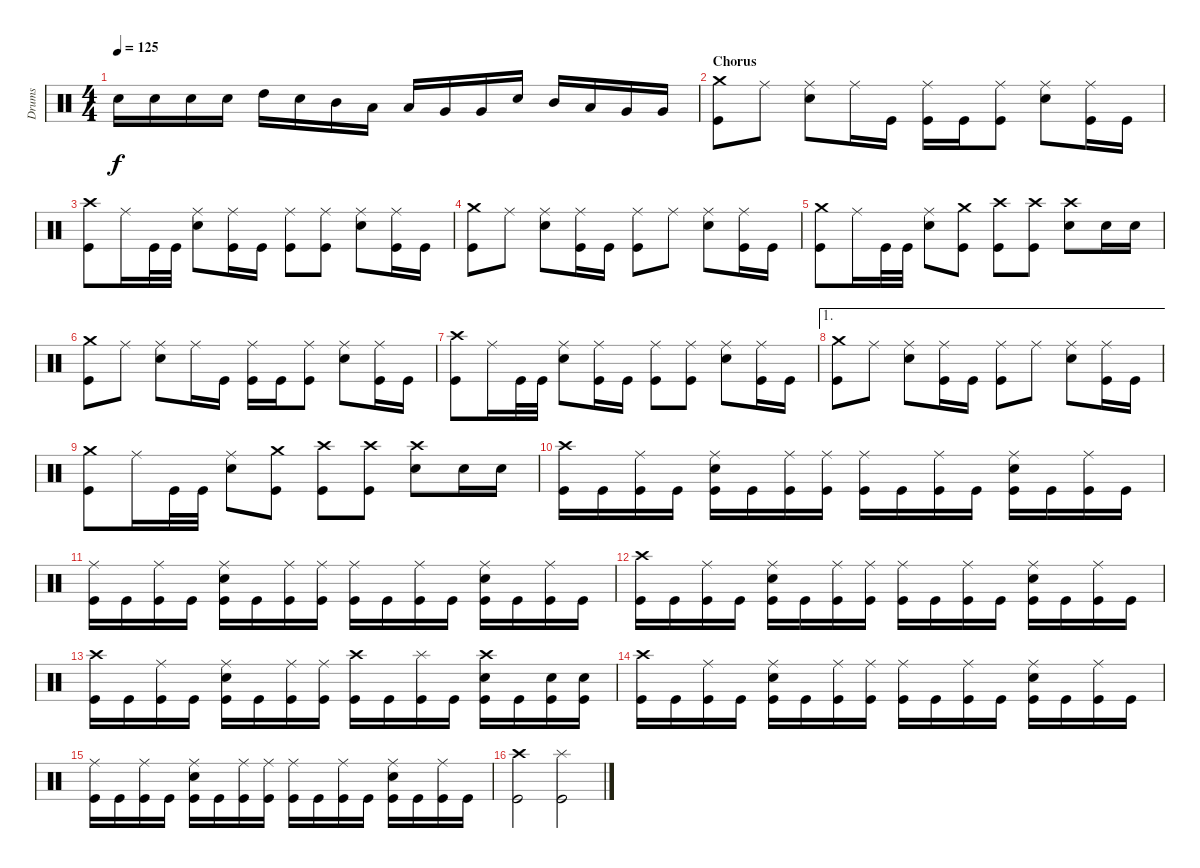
\track ("Drums" "Drums") {instrument percussion}
\staff {score}
\articulation defaults
\ts (4 4)
\tempo 125
\clef neutral
\ks c "Electric Snare (hit)".16{dy f} "Electric Snare (hit)".16 "Electric Snare (hit)".16 "Electric Snare (hit)".16 "High Tom (hit)".16 "Electric Snare (hit)".16 "Mid Tom (hit)".16 "Low Tom (hit)".16 "Low Tom (hit)".16 "Very Low Tom (hit)".16 "Very Low Tom (hit)".16 "Electric Snare (hit)".16 "Mid Tom (hit)".16 "Low Tom (hit)".16 "Very Low Tom (hit)".16 "Very Low Tom (hit)".16
|
\section ("" "Chorus")
("Crash medium (hit)" "Kick (hit)").8 "Ride (middle)".8 ("Ride (middle)" "Electric Snare (hit)").8 "Ride (middle)".16 "Kick (hit)".16 ("Ride (middle)" "Kick (hit)").16 "Kick (hit)".16 ("Ride (middle)" "Kick (hit)").8 ("Ride (middle)" "Electric Snare (hit)").8 ("Ride (middle)" "Kick (hit)").16 "Kick (hit)".16 |
("Crash high (hit)" "Kick (hit)").8 "Ride (middle)".16 "Kick (hit)".32 "Kick (hit)".32 ("Ride (middle)" "Electric Snare (hit)").8 ("Ride (middle)" "Kick (hit)").16 "Kick (hit)".16 ("Ride (middle)" "Kick (hit)").8 ("Ride (middle)" "Kick (hit)").8 ("Ride (middle)" "Electric Snare (hit)").8 ("Ride (middle)" "Kick (hit)").16 "Kick (hit)".16 |
("Crash medium (hit)" "Kick (hit)").8 "Ride (middle)".8 ("Ride (middle)" "Electric Snare (hit)").8 ("Ride (middle)" "Kick (hit)").16 "Kick (hit)".16 ("Ride (middle)" "Kick (hit)").8 "Ride (middle)".8 ("Ride (middle)" "Electric Snare (hit)").8 ("Ride (middle)" "Kick (hit)").16 "Kick (hit)".16 |
("Crash medium (hit)" "Kick (hit)").8 "Ride (middle)".16 "Kick (hit)".32 "Kick (hit)".32 ("Ride (middle)" "Electric Snare (hit)").8 ("Crash medium (hit)" "Kick (hit)").8 ("Crash high (hit)" "Kick (hit)").8 ("Crash high (hit)" "Kick (hit)").8 ("Crash high (hit)" "Electric Snare (hit)").8 "Electric Snare (hit)".16 "Electric Snare (hit)".16 |
("Crash medium (hit)" "Kick (hit)").8 "Ride (middle)".8 ("Ride (middle)" "Electric Snare (hit)").8 "Ride (middle)".16 "Kick (hit)".16 ("Ride (middle)" "Kick (hit)").16 "Kick (hit)".16 ("Ride (middle)" "Kick (hit)").8 ("Ride (middle)" "Electric Snare (hit)").8 ("Ride (middle)" "Kick (hit)").16 "Kick (hit)".16 |
("Crash high (hit)" "Kick (hit)").8 "Ride (middle)".16 "Kick (hit)".32 "Kick (hit)".32 ("Ride (middle)" "Electric Snare (hit)").8 ("Ride (middle)" "Kick (hit)").16 "Kick (hit)".16 ("Ride (middle)" "Kick (hit)").8 ("Ride (middle)" "Kick (hit)").8 ("Ride (middle)" "Electric Snare (hit)").8 ("Ride (middle)" "Kick (hit)").16 "Kick (hit)".16 |
\ae 1
("Crash medium (hit)" "Kick (hit)").8 "Ride (middle)".8 ("Ride (middle)" "Electric Snare (hit)").8 ("Ride (middle)" "Kick (hit)").16 "Kick (hit)".16 ("Ride (middle)" "Kick (hit)").8 "Ride (middle)".8 ("Ride (middle)" "Electric Snare (hit)").8 ("Ride (middle)" "Kick (hit)").16 "Kick (hit)".16 |
("Crash medium (hit)" "Kick (hit)").8 "Ride (middle)".16 "Kick (hit)".32 "Kick (hit)".32 ("Ride (middle)" "Electric Snare (hit)").8 ("Crash medium (hit)" "Kick (hit)").8 ("Crash high (hit)" "Kick (hit)").8 ("Crash high (hit)" "Kick (hit)").8 ("Crash high (hit)" "Electric Snare (hit)").8 "Electric Snare (hit)".16 "Electric Snare (hit)".16 |
("Crash high (hit)" "Kick (hit)").16 "Kick (hit)".16 ("Ride (middle)" "Kick (hit)").16 "Kick (hit)".16 ("Ride (middle)" "Electric Snare (hit)" "Kick (hit)").16 "Kick (hit)".16 ("Ride (middle)" "Kick (hit)").16 ("Ride (middle)" "Kick (hit)").16 ("Ride (middle)" "Kick (hit)").16 "Kick (hit)".16 ("Ride (middle)" "Kick (hit)").16 "Kick (hit)".16 ("Ride (middle)" "Electric Snare (hit)" "Kick (hit)").16 "Kick (hit)".16 ("Ride (middle)" "Kick (hit)").16 "Kick (hit)".16 |
("Ride (middle)" "Kick (hit)").16 "Kick (hit)".16 ("Ride (middle)" "Kick (hit)").16 "Kick (hit)".16 ("Ride (middle)" "Electric Snare (hit)" "Kick (hit)").16 "Kick (hit)".16 ("Ride (middle)" "Kick (hit)").16 ("Ride (middle)" "Kick (hit)").16 ("Ride (middle)" "Kick (hit)").16 "Kick (hit)".16 ("Ride (middle)" "Kick (hit)").16 "Kick (hit)".16 ("Ride (middle)" "Electric Snare (hit)" "Kick (hit)").16 "Kick (hit)".16 ("Ride (middle)" "Kick (hit)").16 "Kick (hit)".16 |
("Crash high (hit)" "Kick (hit)").16 "Kick (hit)".16 ("Ride (middle)" "Kick (hit)").16 "Kick (hit)".16 ("Ride (middle)" "Electric Snare (hit)" "Kick (hit)").16 "Kick (hit)".16 ("Ride (middle)" "Kick (hit)").16 ("Ride (middle)" "Kick (hit)").16 ("Ride (middle)" "Kick (hit)").16 "Kick (hit)".16 ("Ride (middle)" "Kick (hit)").16 "Kick (hit)".16 ("Ride (middle)" "Electric Snare (hit)" "Kick (hit)").16 "Kick (hit)".16 ("Ride (middle)" "Kick (hit)").16 "Kick (hit)".16 |
("Crash high (hit)" "Kick (hit)").16 "Kick (hit)".16 ("Ride (middle)" "Kick (hit)").16 "Kick (hit)".16 ("Ride (middle)" "Electric Snare (hit)" "Kick (hit)").16 "Kick (hit)".16 ("Ride (middle)" "Kick (hit)").16 ("Ride (middle)" "Kick (hit)").16 ("Crash high (hit)" "Kick (hit)").16 "Kick (hit)".16 ("Splash (hit)" "Kick (hit)").16 "Kick (hit)".16 ("Crash high (hit)" "Electric Snare (hit)" "Kick (hit)").16 "Kick (hit)".16 ("Electric Snare (hit)" "Kick (hit)").16 ("Electric Snare (hit)" "Kick (hit)").16 |
("Crash high (hit)" "Kick (hit)").16 "Kick (hit)".16 ("Ride (middle)" "Kick (hit)").16 "Kick (hit)".16 ("Ride (middle)" "Electric Snare (hit)" "Kick (hit)").16 "Kick (hit)".16 ("Ride (middle)" "Kick (hit)").16 ("Ride (middle)" "Kick (hit)").16 ("Ride (middle)" "Kick (hit)").16 "Kick (hit)".16 ("Ride (middle)" "Kick (hit)").16 "Kick (hit)".16 ("Ride (middle)" "Electric Snare (hit)" "Kick (hit)").16 "Kick (hit)".16 ("Ride (middle)" "Kick (hit)").16 "Kick (hit)".16 |
("Ride (middle)" "Kick (hit)").16 "Kick (hit)".16 ("Ride (middle)" "Kick (hit)").16 "Kick (hit)".16 ("Ride (middle)" "Electric Snare (hit)" "Kick (hit)").16 "Kick (hit)".16 ("Ride (middle)" "Kick (hit)").16 ("Ride (middle)" "Kick (hit)").16 ("Ride (middle)" "Kick (hit)").16 "Kick (hit)".16 ("Ride (middle)" "Kick (hit)").16 "Kick (hit)".16 ("Ride (middle)" "Electric Snare (hit)" "Kick (hit)").16 "Kick (hit)".16 ("Ride (middle)" "Kick (hit)").16 "Kick (hit)".16 |
("Crash high (hit)" "Kick (hit)").2 ("Splash (hit)" "Kick (hit)").2
